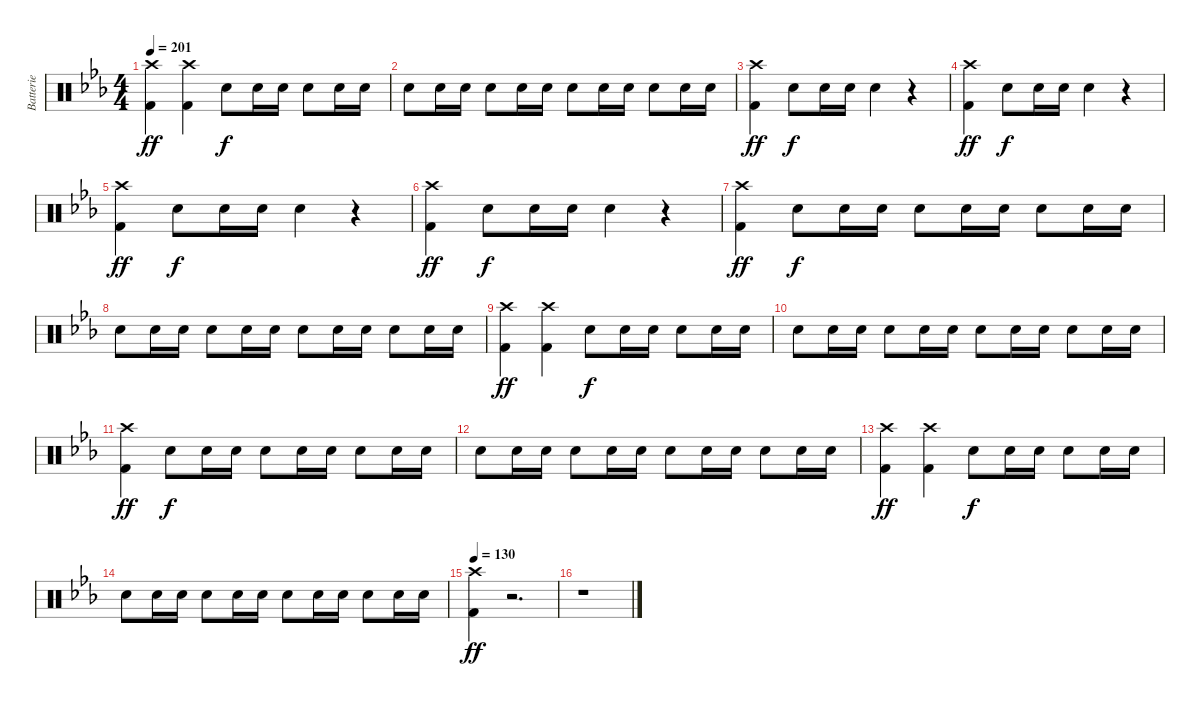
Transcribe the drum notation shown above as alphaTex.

\track ("Batterie" "Batterie") {instrument percussion}
\staff {score}
\articulation defaults
\ts (4 4)
\tempo 201
\clef neutral
\ks eb
("Crash high (hit)" "Kick (hit) 2").4{dy ff} ("Crash high (hit)" "Kick (hit) 2").4 "Snare (hit) 2".8{dy f} "Snare (hit) 2".16 "Snare (hit) 2".16 "Snare (hit) 2".8 "Snare (hit) 2".16 "Snare (hit) 2".16 |
"Snare (hit) 2".8 "Snare (hit) 2".16 "Snare (hit) 2".16 "Snare (hit) 2".8 "Snare (hit) 2".16 "Snare (hit) 2".16 "Snare (hit) 2".8 "Snare (hit) 2".16 "Snare (hit) 2".16 "Snare (hit) 2".8 "Snare (hit) 2".16 "Snare (hit) 2".16 |
("Crash high (hit)" "Kick (hit) 2").4{dy ff} "Snare (hit) 2".8{dy f} "Snare (hit) 2".16 "Snare (hit) 2".16 "Snare (hit) 2".4 r.4 |
("Crash high (hit)" "Kick (hit) 2").4{dy ff} "Snare (hit) 2".8{dy f} "Snare (hit) 2".16 "Snare (hit) 2".16 "Snare (hit) 2".4 r.4 |
("Crash high (hit)" "Kick (hit) 2").4{dy ff} "Snare (hit) 2".8{dy f} "Snare (hit) 2".16 "Snare (hit) 2".16 "Snare (hit) 2".4 r.4 |
("Crash high (hit)" "Kick (hit) 2").4{dy ff} "Snare (hit) 2".8{dy f} "Snare (hit) 2".16 "Snare (hit) 2".16 "Snare (hit) 2".4 r.4 |
("Crash high (hit)" "Kick (hit) 2").4{dy ff} "Snare (hit) 2".8{dy f} "Snare (hit) 2".16 "Snare (hit) 2".16 "Snare (hit) 2".8 "Snare (hit) 2".16 "Snare (hit) 2".16 "Snare (hit) 2".8 "Snare (hit) 2".16 "Snare (hit) 2".16 |
"Snare (hit) 2".8 "Snare (hit) 2".16 "Snare (hit) 2".16 "Snare (hit) 2".8 "Snare (hit) 2".16 "Snare (hit) 2".16 "Snare (hit) 2".8 "Snare (hit) 2".16 "Snare (hit) 2".16 "Snare (hit) 2".8 "Snare (hit) 2".16 "Snare (hit) 2".16 |
("Crash high (hit)" "Kick (hit) 2").4{dy ff} ("Crash high (hit)" "Kick (hit) 2").4 "Snare (hit) 2".8{dy f} "Snare (hit) 2".16 "Snare (hit) 2".16 "Snare (hit) 2".8 "Snare (hit) 2".16 "Snare (hit) 2".16 |
"Snare (hit) 2".8 "Snare (hit) 2".16 "Snare (hit) 2".16 "Snare (hit) 2".8 "Snare (hit) 2".16 "Snare (hit) 2".16 "Snare (hit) 2".8 "Snare (hit) 2".16 "Snare (hit) 2".16 "Snare (hit) 2".8 "Snare (hit) 2".16 "Snare (hit) 2".16 |
("Crash high (hit)" "Kick (hit) 2").4{dy ff} "Snare (hit) 2".8{dy f} "Snare (hit) 2".16 "Snare (hit) 2".16 "Snare (hit) 2".8 "Snare (hit) 2".16 "Snare (hit) 2".16 "Snare (hit) 2".8 "Snare (hit) 2".16 "Snare (hit) 2".16 |
"Snare (hit) 2".8 "Snare (hit) 2".16 "Snare (hit) 2".16 "Snare (hit) 2".8 "Snare (hit) 2".16 "Snare (hit) 2".16 "Snare (hit) 2".8 "Snare (hit) 2".16 "Snare (hit) 2".16 "Snare (hit) 2".8 "Snare (hit) 2".16 "Snare (hit) 2".16 |
("Crash high (hit)" "Kick (hit) 2").4{dy ff} ("Crash high (hit)" "Kick (hit) 2").4 "Snare (hit) 2".8{dy f} "Snare (hit) 2".16 "Snare (hit) 2".16 "Snare (hit) 2".8 "Snare (hit) 2".16 "Snare (hit) 2".16 |
"Snare (hit) 2".8 "Snare (hit) 2".16 "Snare (hit) 2".16 "Snare (hit) 2".8 "Snare (hit) 2".16 "Snare (hit) 2".16 "Snare (hit) 2".8 "Snare (hit) 2".16 "Snare (hit) 2".16 "Snare (hit) 2".8 "Snare (hit) 2".16 "Snare (hit) 2".16 |
\tempo 130
("Crash high (hit)" "Kick (hit) 2").4{dy ff} r.2{d} |
r.1
